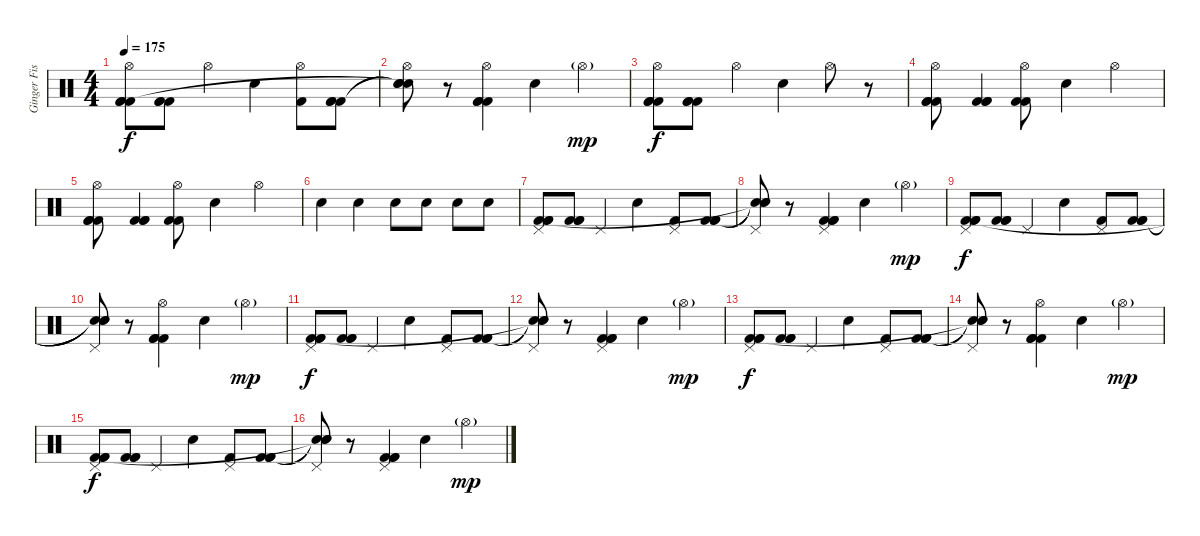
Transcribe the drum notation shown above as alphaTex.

\track ("Ginger Fish" "Ginger Fis") {instrument percussion}
\staff {score}
\articulation defaults
\ts (4 4)
\tempo 175
\clef neutral
\ks c
("Hi-Hat (open)" "Kick (hit) 2" "Kick (hit) 2" "Kick (hit) 2").8{dy f} ("Kick (hit) 2" "Kick (hit) 2" "Kick (hit) 2").8 "Hi-Hat (open)".4 "Snare (hit) 2".4 ("Hi-Hat (open)" "Kick (hit) 2").8 ("Kick (hit) 2" "Kick (hit) 2" "Kick (hit) 2").8 |
("Hi-Hat (open)" "Snare (hit)"{t} "Snare (hit)"{t} "Snare (hit)"{t}).8 r.8 ("Hi-Hat (open)" "Kick (hit) 2" "Kick (hit) 2" "Kick (hit) 2").4 "Snare (hit) 2".4 "Hi-Hat (open)"{g}.4{dy mp} |
("Hi-Hat (open)" "Kick (hit) 2" "Kick (hit) 2" "Kick (hit) 2").8{dy f} ("Kick (hit) 2" "Kick (hit) 2" "Kick (hit) 2").8 "Hi-Hat (open)".4 "Snare (hit) 2".4 "Hi-Hat (open)".8 r.8 |
("Hi-Hat (open)" "Kick (hit) 2" "Kick (hit) 2" "Kick (hit) 2").8 ("Kick (hit) 2" "Kick (hit) 2" "Kick (hit) 2").4 ("Hi-Hat (open)" "Kick (hit) 2" "Kick (hit) 2").8 "Snare (hit) 2".4 "Hi-Hat (open)".4 |
("Hi-Hat (open)" "Kick (hit) 2" "Kick (hit) 2" "Kick (hit) 2").8 ("Kick (hit) 2" "Kick (hit) 2" "Kick (hit) 2").4 ("Hi-Hat (open)" "Kick (hit) 2" "Kick (hit) 2").8 "Snare (hit) 2".4 "Hi-Hat (open)".4 |
"Snare (hit) 2".4 "Snare (hit) 2".4 "Snare (hit) 2".8 "Snare (hit) 2".8 "Snare (hit) 2".8 "Snare (hit) 2".8 |
("Pedal Hi-Hat (hit)" "Kick (hit) 2" "Kick (hit) 2" "Kick (hit) 2").8 ("Kick (hit) 2" "Kick (hit) 2" "Kick (hit) 2").8 "Pedal Hi-Hat (hit)".4 "Snare (hit) 2".4 ("Pedal Hi-Hat (hit)" "Kick (hit) 2").8 ("Kick (hit) 2" "Kick (hit) 2" "Kick (hit) 2").8 |
("Pedal Hi-Hat (hit)" "Snare (hit)"{t} "Snare (hit)"{t} "Snare (hit)"{t}).8 r.8 ("Pedal Hi-Hat (hit)" "Kick (hit) 2" "Kick (hit) 2" "Kick (hit) 2").4 "Snare (hit) 2".4 "Hi-Hat (open)"{g}.4{dy mp} |
("Pedal Hi-Hat (hit)" "Kick (hit) 2" "Kick (hit) 2" "Kick (hit) 2").8{dy f} ("Kick (hit) 2" "Kick (hit) 2" "Kick (hit) 2").8 "Pedal Hi-Hat (hit)".4 "Snare (hit) 2".4 ("Pedal Hi-Hat (hit)" "Kick (hit) 2").8 ("Kick (hit) 2" "Kick (hit) 2" "Kick (hit) 2").8 |
("Pedal Hi-Hat (hit)" "Snare (hit)"{t} "Snare (hit)"{t} "Snare (hit)"{t}).8 r.8 ("Hi-Hat (open)" "Kick (hit) 2" "Kick (hit) 2" "Kick (hit) 2").4 "Snare (hit) 2".4 "Hi-Hat (open)"{g}.4{dy mp} |
("Pedal Hi-Hat (hit)" "Kick (hit) 2" "Kick (hit) 2" "Kick (hit) 2").8{dy f} ("Kick (hit) 2" "Kick (hit) 2" "Kick (hit) 2").8 "Pedal Hi-Hat (hit)".4 "Snare (hit) 2".4 ("Pedal Hi-Hat (hit)" "Kick (hit) 2").8 ("Kick (hit) 2" "Kick (hit) 2" "Kick (hit) 2").8 |
("Pedal Hi-Hat (hit)" "Snare (hit)"{t} "Snare (hit)"{t} "Snare (hit)"{t}).8 r.8 ("Pedal Hi-Hat (hit)" "Kick (hit) 2" "Kick (hit) 2" "Kick (hit) 2").4 "Snare (hit) 2".4 "Hi-Hat (open)"{g}.4{dy mp} |
("Pedal Hi-Hat (hit)" "Kick (hit) 2" "Kick (hit) 2" "Kick (hit) 2").8{dy f} ("Kick (hit) 2" "Kick (hit) 2" "Kick (hit) 2").8 "Pedal Hi-Hat (hit)".4 "Snare (hit) 2".4 ("Pedal Hi-Hat (hit)" "Kick (hit) 2").8 ("Kick (hit) 2" "Kick (hit) 2" "Kick (hit) 2").8 |
("Pedal Hi-Hat (hit)" "Snare (hit)"{t} "Snare (hit)"{t} "Snare (hit)"{t}).8 r.8 ("Hi-Hat (open)" "Kick (hit) 2" "Kick (hit) 2" "Kick (hit) 2").4 "Snare (hit) 2".4 "Hi-Hat (open)"{g}.4{dy mp} |
("Pedal Hi-Hat (hit)" "Kick (hit) 2" "Kick (hit) 2" "Kick (hit) 2").8{dy f} ("Kick (hit) 2" "Kick (hit) 2" "Kick (hit) 2").8 "Pedal Hi-Hat (hit)".4 "Snare (hit) 2".4 ("Pedal Hi-Hat (hit)" "Kick (hit) 2").8 ("Kick (hit) 2" "Kick (hit) 2" "Kick (hit) 2").8 |
("Pedal Hi-Hat (hit)" "Snare (hit)"{t} "Snare (hit)"{t} "Snare (hit)"{t}).8 r.8 ("Pedal Hi-Hat (hit)" "Kick (hit) 2" "Kick (hit) 2" "Kick (hit) 2").4 "Snare (hit) 2".4 "Hi-Hat (open)"{g}.4{dy mp}
